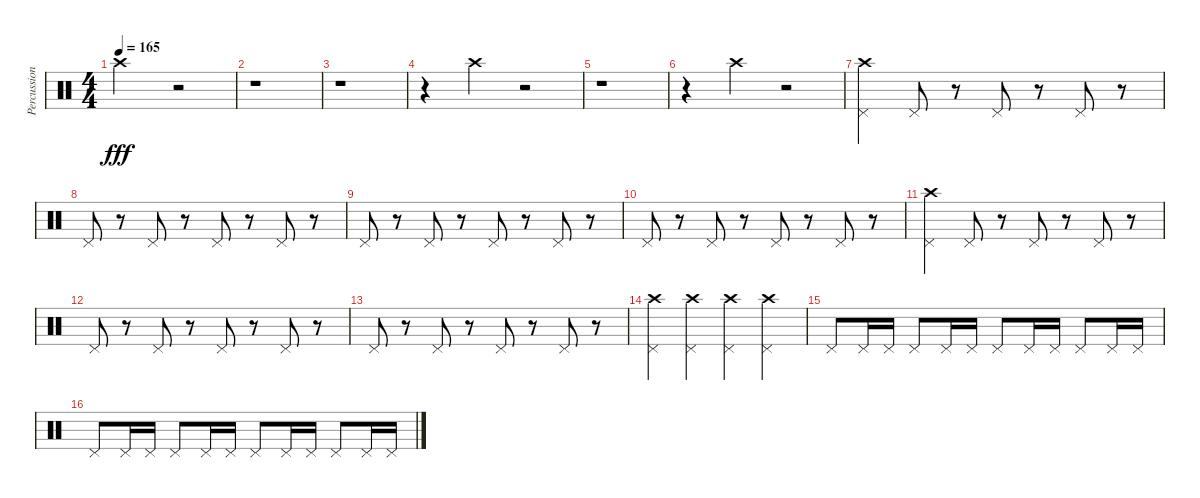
\track ("Percussion" "Percussion") {instrument percussion}
\staff {score}
\articulation defaults
\ts (4 4)
\tempo 165
\clef neutral
\ks c "Crash high (hit)".2{dy fff}
r.2 |
r.1 |
r.1 |
r.4 "Crash high (hit)".4 r.2 |
r.1 |
r.4 "Crash high (hit)".4 r.2 |
("Crash high (hit)" "Pedal Hi-Hat (hit)").4 "Pedal Hi-Hat (hit)".8 r.8 "Pedal Hi-Hat (hit)".8 r.8 "Pedal Hi-Hat (hit)".8 r.8 |
"Pedal Hi-Hat (hit)".8 r.8 "Pedal Hi-Hat (hit)".8 r.8 "Pedal Hi-Hat (hit)".8 r.8 "Pedal Hi-Hat (hit)".8 r.8 |
"Pedal Hi-Hat (hit)".8 r.8 "Pedal Hi-Hat (hit)".8 r.8 "Pedal Hi-Hat (hit)".8 r.8 "Pedal Hi-Hat (hit)".8 r.8 |
"Pedal Hi-Hat (hit)".8 r.8 "Pedal Hi-Hat (hit)".8 r.8 "Pedal Hi-Hat (hit)".8 r.8 "Pedal Hi-Hat (hit)".8 r.8 |
("Crash high (hit)" "Pedal Hi-Hat (hit)").4 "Pedal Hi-Hat (hit)".8 r.8 "Pedal Hi-Hat (hit)".8 r.8 "Pedal Hi-Hat (hit)".8 r.8 |
"Pedal Hi-Hat (hit)".8 r.8 "Pedal Hi-Hat (hit)".8 r.8 "Pedal Hi-Hat (hit)".8 r.8 "Pedal Hi-Hat (hit)".8 r.8 |
"Pedal Hi-Hat (hit)".8 r.8 "Pedal Hi-Hat (hit)".8 r.8 "Pedal Hi-Hat (hit)".8 r.8 "Pedal Hi-Hat (hit)".8 r.8 |
("Pedal Hi-Hat (hit)" "Crash high (hit)").4 ("Pedal Hi-Hat (hit)" "Crash high (hit)").4 ("Pedal Hi-Hat (hit)" "Crash high (hit)").4 ("Pedal Hi-Hat (hit)" "Crash high (hit)").4 |
"Pedal Hi-Hat (hit)".8 "Pedal Hi-Hat (hit)".16 "Pedal Hi-Hat (hit)".16 "Pedal Hi-Hat (hit)".8 "Pedal Hi-Hat (hit)".16 "Pedal Hi-Hat (hit)".16 "Pedal Hi-Hat (hit)".8 "Pedal Hi-Hat (hit)".16 "Pedal Hi-Hat (hit)".16 "Pedal Hi-Hat (hit)".8 "Pedal Hi-Hat (hit)".16 "Pedal Hi-Hat (hit)".16 |
"Pedal Hi-Hat (hit)".8 "Pedal Hi-Hat (hit)".16 "Pedal Hi-Hat (hit)".16 "Pedal Hi-Hat (hit)".8 "Pedal Hi-Hat (hit)".16 "Pedal Hi-Hat (hit)".16 "Pedal Hi-Hat (hit)".8 "Pedal Hi-Hat (hit)".16 "Pedal Hi-Hat (hit)".16 "Pedal Hi-Hat (hit)".8 "Pedal Hi-Hat (hit)".16 "Pedal Hi-Hat (hit)".16
